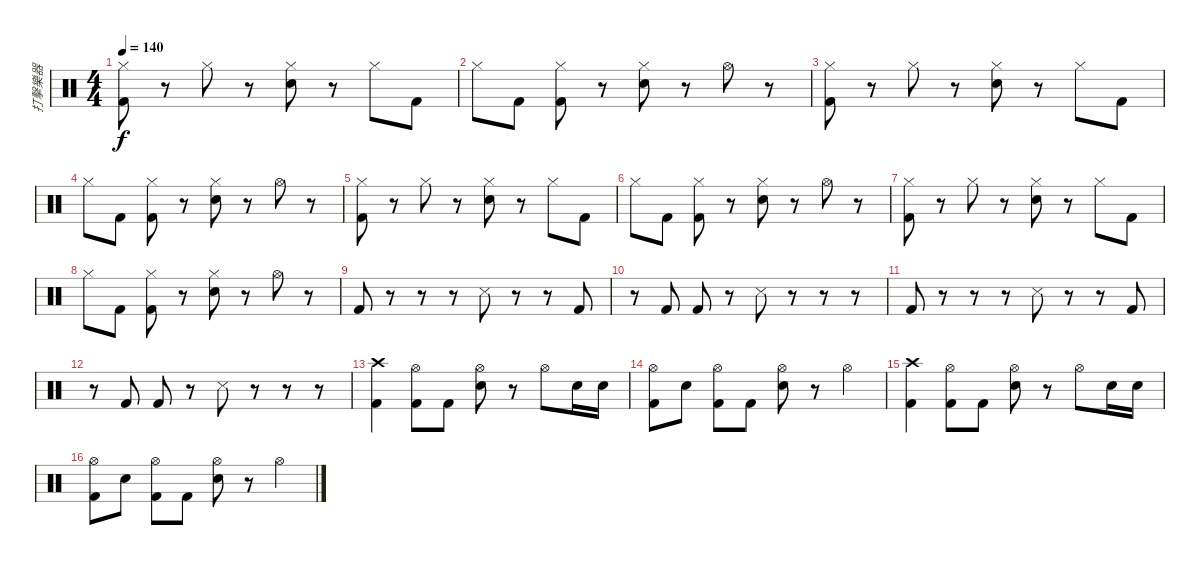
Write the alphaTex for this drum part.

\track ("打擊樂器" "打擊樂器") {instrument percussion}
\staff {score}
\articulation defaults
\ts (4 4)
\tempo 140
\clef neutral
\ks c
("Hi-Hat (closed)" "Kick (hit) 2").8{dy f} r.8 "Hi-Hat (closed)".8 r.8 ("Hi-Hat (closed)" "Electric Snare (hit)").8 r.8 "Hi-Hat (closed)".8 "Kick (hit) 2".8 |
"Hi-Hat (closed)".8 "Kick (hit) 2".8 ("Hi-Hat (closed)" "Kick (hit) 2").8 r.8 ("Hi-Hat (closed)" "Electric Snare (hit)").8 r.8 "Hi-Hat (open)".8 r.8 |
("Hi-Hat (closed)" "Kick (hit) 2").8 r.8 "Hi-Hat (closed)".8 r.8 ("Hi-Hat (closed)" "Electric Snare (hit)").8 r.8 "Hi-Hat (closed)".8 "Kick (hit) 2".8 |
"Hi-Hat (closed)".8 "Kick (hit) 2".8 ("Hi-Hat (closed)" "Kick (hit) 2").8 r.8 ("Hi-Hat (closed)" "Electric Snare (hit)").8 r.8 "Hi-Hat (open)".8 r.8 |
("Hi-Hat (closed)" "Kick (hit) 2").8 r.8 "Hi-Hat (closed)".8 r.8 ("Hi-Hat (closed)" "Electric Snare (hit)").8 r.8 "Hi-Hat (closed)".8 "Kick (hit) 2".8 |
"Hi-Hat (closed)".8 "Kick (hit) 2".8 ("Hi-Hat (closed)" "Kick (hit) 2").8 r.8 ("Hi-Hat (closed)" "Electric Snare (hit)").8 r.8 "Hi-Hat (open)".8 r.8 |
("Hi-Hat (closed)" "Kick (hit) 2").8 r.8 "Hi-Hat (closed)".8 r.8 ("Hi-Hat (closed)" "Electric Snare (hit)").8 r.8 "Hi-Hat (closed)".8 "Kick (hit) 2".8 |
"Hi-Hat (closed)".8 "Kick (hit) 2".8 ("Hi-Hat (closed)" "Kick (hit) 2").8 r.8 ("Hi-Hat (closed)" "Electric Snare (hit)").8 r.8 "Hi-Hat (open)".8 r.8 |
"Kick (hit) 2".8 r.8 r.8 r.8 "Snare (side stick) 3".8 r.8 r.8 "Kick (hit) 2".8 |
r.8 "Kick (hit) 2".8 "Kick (hit) 2".8 r.8 "Snare (side stick) 3".8 r.8 r.8 r.8 |
"Kick (hit) 2".8 r.8 r.8 r.8 "Snare (side stick) 3".8 r.8 r.8 "Kick (hit) 2".8 |
r.8 "Kick (hit) 2".8 "Kick (hit) 2".8 r.8 "Snare (side stick) 3".8 r.8 r.8 r.8 |
("Crash high (hit)" "Kick (hit) 2").4 ("Hi-Hat (open)" "Kick (hit) 2").8 "Kick (hit) 2".8 ("Hi-Hat (open)" "Electric Snare (hit)").8 r.8 "Hi-Hat (open)".8 "Electric Snare (hit)".16 "Electric Snare (hit)".16 |
("Hi-Hat (open)" "Kick (hit) 2").8 "Electric Snare (hit)".8 ("Hi-Hat (open)" "Kick (hit) 2").8 "Kick (hit) 2".8 ("Hi-Hat (open)" "Electric Snare (hit)").8 r.8 "Hi-Hat (open)".4 |
("Crash high (hit)" "Kick (hit) 2").4 ("Hi-Hat (open)" "Kick (hit) 2").8 "Kick (hit) 2".8 ("Hi-Hat (open)" "Electric Snare (hit)").8 r.8 "Hi-Hat (open)".8 "Electric Snare (hit)".16 "Electric Snare (hit)".16 |
("Hi-Hat (open)" "Kick (hit) 2").8 "Electric Snare (hit)".8 ("Hi-Hat (open)" "Kick (hit) 2").8 "Kick (hit) 2".8 ("Hi-Hat (open)" "Electric Snare (hit)").8 r.8 "Hi-Hat (open)".4
